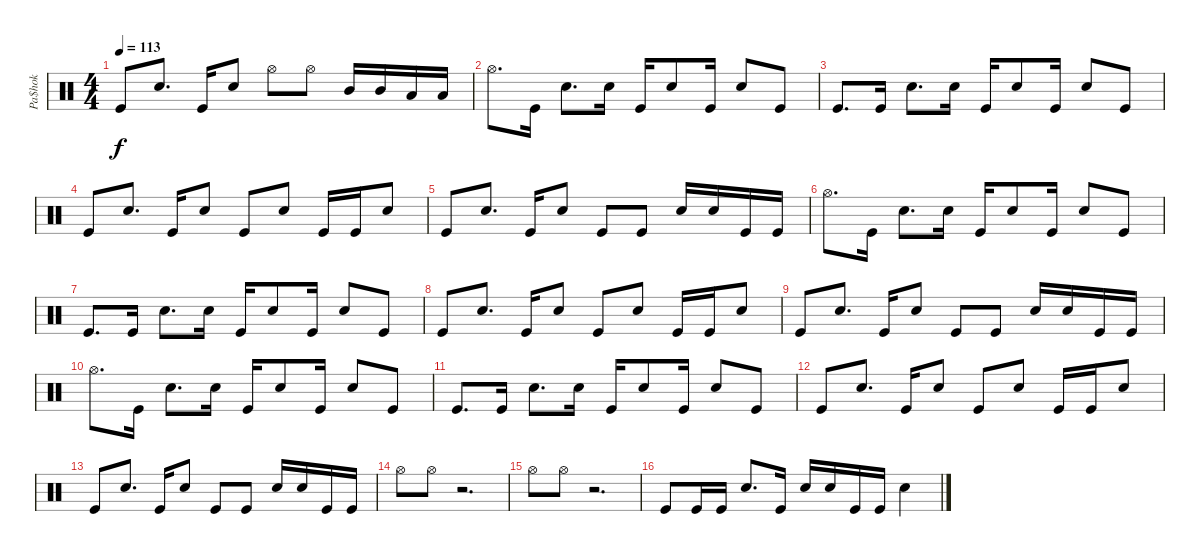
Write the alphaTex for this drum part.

\track ("Pa$hok" "Pa$hok") {instrument percussion}
\staff {score}
\articulation defaults
\ts (4 4)
\tempo 113
\clef neutral
\ks c "Kick (hit)".8{dy f} "Snare (hit) 2".8{d} "Kick (hit)".16 "Snare (hit) 2".8 "Hi-Hat (open)".8 "Hi-Hat (open)".8 "Mid Tom (hit)".16 "Mid Tom (hit)".16 "Low Tom (hit)".16 "Low Tom (hit)".16
|
"Hi-Hat (open)".8{d} "Kick (hit)".16 "Snare (hit) 2".8{d} "Snare (hit) 2".16 "Kick (hit)".16 "Snare (hit) 2".8 "Kick (hit)".16 "Snare (hit) 2".8 "Kick (hit)".8 |
"Kick (hit)".8{d} "Kick (hit)".16 "Snare (hit) 2".8{d} "Snare (hit) 2".16 "Kick (hit)".16 "Snare (hit) 2".8 "Kick (hit)".16 "Snare (hit) 2".8 "Kick (hit)".8 |
"Kick (hit)".8 "Snare (hit) 2".8{d} "Kick (hit)".16 "Snare (hit) 2".8 "Kick (hit)".8 "Snare (hit) 2".8 "Kick (hit)".16 "Kick (hit)".16 "Snare (hit) 2".8 |
"Kick (hit)".8 "Snare (hit) 2".8{d} "Kick (hit)".16 "Snare (hit) 2".8 "Kick (hit)".8 "Kick (hit)".8 "Snare (hit) 2".16 "Snare (hit) 2".16 "Kick (hit)".16 "Kick (hit)".16 |
"Hi-Hat (open)".8{d} "Kick (hit)".16 "Snare (hit) 2".8{d} "Snare (hit) 2".16 "Kick (hit)".16 "Snare (hit) 2".8 "Kick (hit)".16 "Snare (hit) 2".8 "Kick (hit)".8 |
"Kick (hit)".8{d} "Kick (hit)".16 "Snare (hit) 2".8{d} "Snare (hit) 2".16 "Kick (hit)".16 "Snare (hit) 2".8 "Kick (hit)".16 "Snare (hit) 2".8 "Kick (hit)".8 |
"Kick (hit)".8 "Snare (hit) 2".8{d} "Kick (hit)".16 "Snare (hit) 2".8 "Kick (hit)".8 "Snare (hit) 2".8 "Kick (hit)".16 "Kick (hit)".16 "Snare (hit) 2".8 |
"Kick (hit)".8 "Snare (hit) 2".8{d} "Kick (hit)".16 "Snare (hit) 2".8 "Kick (hit)".8 "Kick (hit)".8 "Snare (hit) 2".16 "Snare (hit) 2".16 "Kick (hit)".16 "Kick (hit)".16 |
"Hi-Hat (open)".8{d} "Kick (hit)".16 "Snare (hit) 2".8{d} "Snare (hit) 2".16 "Kick (hit)".16 "Snare (hit) 2".8 "Kick (hit)".16 "Snare (hit) 2".8 "Kick (hit)".8 |
"Kick (hit)".8{d} "Kick (hit)".16 "Snare (hit) 2".8{d} "Snare (hit) 2".16 "Kick (hit)".16 "Snare (hit) 2".8 "Kick (hit)".16 "Snare (hit) 2".8 "Kick (hit)".8 |
"Kick (hit)".8 "Snare (hit) 2".8{d} "Kick (hit)".16 "Snare (hit) 2".8 "Kick (hit)".8 "Snare (hit) 2".8 "Kick (hit)".16 "Kick (hit)".16 "Snare (hit) 2".8 |
"Kick (hit)".8 "Snare (hit) 2".8{d} "Kick (hit)".16 "Snare (hit) 2".8 "Kick (hit)".8 "Kick (hit)".8 "Snare (hit) 2".16 "Snare (hit) 2".16 "Kick (hit)".16 "Kick (hit)".16 |
"Hi-Hat (open)".8 "Hi-Hat (open)".8 r.2{d} |
"Hi-Hat (open)".8 "Hi-Hat (open)".8 r.2{d} |
"Kick (hit)".8 "Kick (hit)".16 "Kick (hit)".16 "Snare (hit) 2".8{d} "Kick (hit)".16 "Snare (hit) 2".16 "Snare (hit) 2".16 "Kick (hit)".16 "Kick (hit)".16 "Snare (hit) 2".4
